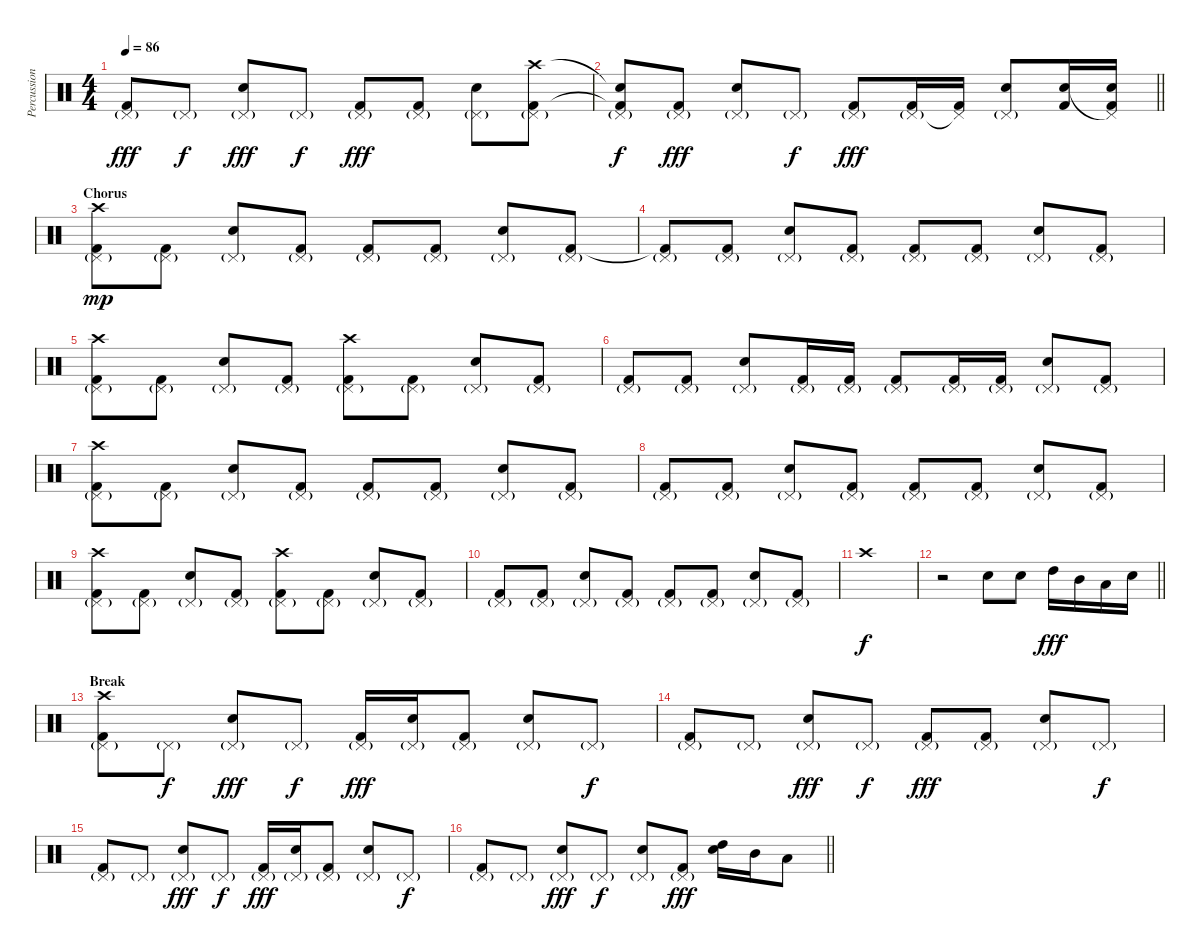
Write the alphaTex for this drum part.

\track ("Percussion" "Percussion") {instrument percussion}
\staff {score}
\articulation defaults
\ts (4 4)
\tempo 86
\clef neutral
\ks c
("Pedal Hi-Hat (hit)"{g} "Kick (hit) 2").8{dy fff} "Pedal Hi-Hat (hit)"{g}.8{dy f} ("Pedal Hi-Hat (hit)"{g} "Snare (hit) 2").8{dy fff} "Pedal Hi-Hat (hit)"{g}.8{dy f} ("Pedal Hi-Hat (hit)"{g} "Kick (hit) 2").8{dy fff} ("Pedal Hi-Hat (hit)"{g} "Kick (hit) 2").8 ("Pedal Hi-Hat (hit)"{g} "Snare (hit) 2").8 ("Pedal Hi-Hat (hit)"{g} "Kick (hit) 2" "Crash high (hit)").8 |
\barLineRight lightlight
("Pedal Hi-Hat (hit)"{g} "Kick (hit) 2"{t} "Snare (hit)"{t}).8{dy f} ("Pedal Hi-Hat (hit)"{g} "Kick (hit) 2").8{dy fff} ("Pedal Hi-Hat (hit)"{g} "Snare (hit) 2").8 "Pedal Hi-Hat (hit)"{g}.8{dy f} ("Pedal Hi-Hat (hit)"{g} "Kick (hit) 2").8{dy fff} ("Pedal Hi-Hat (hit)"{g} "Kick (hit) 2").16 ("Pedal Hi-Hat (hit)"{t} "Kick (hit) 2").16 ("Pedal Hi-Hat (hit)"{g} "Snare (hit) 2").8 ("Snare (hit) 2" "Kick (hit) 2").16 ("Pedal Hi-Hat (hit)"{t} "Snare (hit) 2" "Kick (hit) 2").16 |
\section ("" "Chorus")
("Pedal Hi-Hat (hit)"{g} "Kick (hit) 2" "Crash high (hit)").8{dy mp} ("Pedal Hi-Hat (hit)"{g} "Kick (hit) 2").8 ("Pedal Hi-Hat (hit)"{g} "Snare (hit) 2").8 ("Pedal Hi-Hat (hit)"{g} "Kick (hit) 2").8 ("Pedal Hi-Hat (hit)"{g} "Kick (hit) 2").8 ("Pedal Hi-Hat (hit)"{g} "Kick (hit) 2").8 ("Pedal Hi-Hat (hit)"{g} "Snare (hit) 2").8 ("Pedal Hi-Hat (hit)"{g} "Kick (hit) 2").8 |
("Pedal Hi-Hat (hit)"{g} "Kick (hit) 2"{t}).8 ("Pedal Hi-Hat (hit)"{g} "Kick (hit) 2").8 ("Pedal Hi-Hat (hit)"{g} "Snare (hit) 2").8 ("Pedal Hi-Hat (hit)"{g} "Kick (hit) 2").8 ("Pedal Hi-Hat (hit)"{g} "Kick (hit) 2").8 ("Pedal Hi-Hat (hit)"{g} "Kick (hit) 2").8 ("Pedal Hi-Hat (hit)"{g} "Snare (hit) 2").8 ("Pedal Hi-Hat (hit)"{g} "Kick (hit) 2").8 |
("Pedal Hi-Hat (hit)"{g} "Kick (hit) 2" "Crash high (hit)").8 ("Pedal Hi-Hat (hit)"{g} "Kick (hit) 2").8 ("Pedal Hi-Hat (hit)"{g} "Snare (hit) 2").8 ("Pedal Hi-Hat (hit)"{g} "Kick (hit) 2").8 ("Pedal Hi-Hat (hit)"{g} "Kick (hit) 2" "Crash high (hit)").8 ("Pedal Hi-Hat (hit)"{g} "Kick (hit) 2").8 ("Pedal Hi-Hat (hit)"{g} "Snare (hit) 2").8 ("Pedal Hi-Hat (hit)"{g} "Kick (hit) 2").8 |
("Pedal Hi-Hat (hit)"{g} "Kick (hit) 2").8 ("Pedal Hi-Hat (hit)"{g} "Kick (hit) 2").8 ("Pedal Hi-Hat (hit)"{g} "Snare (hit) 2").8 ("Pedal Hi-Hat (hit)"{g} "Kick (hit) 2").16 ("Pedal Hi-Hat (hit)"{g} "Kick (hit) 2").16 ("Pedal Hi-Hat (hit)"{g} "Kick (hit) 2").8 ("Pedal Hi-Hat (hit)"{g} "Kick (hit) 2").16 ("Pedal Hi-Hat (hit)"{g} "Kick (hit) 2").16 ("Pedal Hi-Hat (hit)"{g} "Snare (hit) 2").8 ("Pedal Hi-Hat (hit)"{g} "Kick (hit) 2").8 |
("Pedal Hi-Hat (hit)"{g} "Kick (hit) 2" "Crash high (hit)").8 ("Pedal Hi-Hat (hit)"{g} "Kick (hit) 2").8 ("Pedal Hi-Hat (hit)"{g} "Snare (hit) 2").8 ("Pedal Hi-Hat (hit)"{g} "Kick (hit) 2").8 ("Pedal Hi-Hat (hit)"{g} "Kick (hit) 2").8 ("Pedal Hi-Hat (hit)"{g} "Kick (hit) 2").8 ("Pedal Hi-Hat (hit)"{g} "Snare (hit) 2").8 ("Pedal Hi-Hat (hit)"{g} "Kick (hit) 2").8 |
("Pedal Hi-Hat (hit)"{g} "Kick (hit) 2").8 ("Pedal Hi-Hat (hit)"{g} "Kick (hit) 2").8 ("Pedal Hi-Hat (hit)"{g} "Snare (hit) 2").8 ("Pedal Hi-Hat (hit)"{g} "Kick (hit) 2").8 ("Pedal Hi-Hat (hit)"{g} "Kick (hit) 2").8 ("Pedal Hi-Hat (hit)"{g} "Kick (hit) 2").8 ("Pedal Hi-Hat (hit)"{g} "Snare (hit) 2").8 ("Pedal Hi-Hat (hit)"{g} "Kick (hit) 2").8 |
("Pedal Hi-Hat (hit)"{g} "Kick (hit) 2" "Crash high (hit)").8 ("Pedal Hi-Hat (hit)"{g} "Kick (hit) 2").8 ("Pedal Hi-Hat (hit)"{g} "Snare (hit) 2").8 ("Pedal Hi-Hat (hit)"{g} "Kick (hit) 2").8 ("Pedal Hi-Hat (hit)"{g} "Kick (hit) 2" "Crash high (hit)").8 ("Pedal Hi-Hat (hit)"{g} "Kick (hit) 2").8 ("Pedal Hi-Hat (hit)"{g} "Snare (hit) 2").8 ("Pedal Hi-Hat (hit)"{g} "Kick (hit) 2").8 |
("Pedal Hi-Hat (hit)"{g} "Kick (hit) 2").8 ("Pedal Hi-Hat (hit)"{g} "Kick (hit) 2").8 ("Pedal Hi-Hat (hit)"{g} "Snare (hit) 2").8 ("Pedal Hi-Hat (hit)"{g} "Kick (hit) 2").8 ("Pedal Hi-Hat (hit)"{g} "Kick (hit) 2").8 ("Pedal Hi-Hat (hit)"{g} "Kick (hit) 2").8 ("Pedal Hi-Hat (hit)"{g} "Snare (hit) 2").8 ("Pedal Hi-Hat (hit)"{g} "Kick (hit) 2").8 |
"Crash high (hit)".1{dy f} |
\barLineRight lightlight
r.2 "Snare (hit) 2".8 "Snare (hit) 2".8 "High Tom (hit)".16{dy fff} "Mid Tom (hit)".16 "Low Tom (hit)".16 "Snare (hit) 2".16 |
\section ("" "Break")
("Pedal Hi-Hat (hit)"{g} "Kick (hit) 2" "Crash high (hit)").8 "Pedal Hi-Hat (hit)"{g}.8{dy f} ("Pedal Hi-Hat (hit)"{g} "Snare (hit) 2").8{dy fff} "Pedal Hi-Hat (hit)"{g}.8{dy f} ("Pedal Hi-Hat (hit)"{g} "Kick (hit) 2").16{dy fff} ("Pedal Hi-Hat (hit)"{g} "Snare (hit) 2").16 ("Pedal Hi-Hat (hit)"{g} "Kick (hit) 2").8 ("Pedal Hi-Hat (hit)"{g} "Snare (hit) 2").8 "Pedal Hi-Hat (hit)"{g}.8{dy f} |
("Pedal Hi-Hat (hit)"{g} "Kick (hit) 2").8 "Pedal Hi-Hat (hit)"{g}.8 ("Pedal Hi-Hat (hit)"{g} "Snare (hit) 2").8{dy fff} "Pedal Hi-Hat (hit)"{g}.8{dy f} ("Pedal Hi-Hat (hit)"{g} "Kick (hit) 2").8{dy fff} ("Pedal Hi-Hat (hit)"{g} "Kick (hit) 2").8 ("Pedal Hi-Hat (hit)"{g} "Snare (hit) 2").8 "Pedal Hi-Hat (hit)"{g}.8{dy f} |
("Pedal Hi-Hat (hit)"{g} "Kick (hit) 2").8 "Pedal Hi-Hat (hit)"{g}.8 ("Pedal Hi-Hat (hit)"{g} "Snare (hit) 2").8{dy fff} "Pedal Hi-Hat (hit)"{g}.8{dy f} ("Pedal Hi-Hat (hit)"{g} "Kick (hit) 2").16{dy fff} ("Pedal Hi-Hat (hit)"{g} "Snare (hit) 2").16 ("Pedal Hi-Hat (hit)"{g} "Kick (hit) 2").8 ("Pedal Hi-Hat (hit)"{g} "Snare (hit) 2").8 "Pedal Hi-Hat (hit)"{g}.8{dy f} |
\barLineRight lightlight
("Pedal Hi-Hat (hit)"{g} "Kick (hit) 2").8 "Pedal Hi-Hat (hit)"{g}.8 ("Pedal Hi-Hat (hit)"{g} "Snare (hit) 2").8{dy fff} "Pedal Hi-Hat (hit)"{g}.8{dy f} ("Pedal Hi-Hat (hit)"{g} "Snare (hit) 2").8 ("Pedal Hi-Hat (hit)"{g} "Kick (hit) 2").8{dy fff} ("Snare (hit) 2" "High Tom (hit)").16 "Mid Tom (hit)".16 "Low Tom (hit)".8
